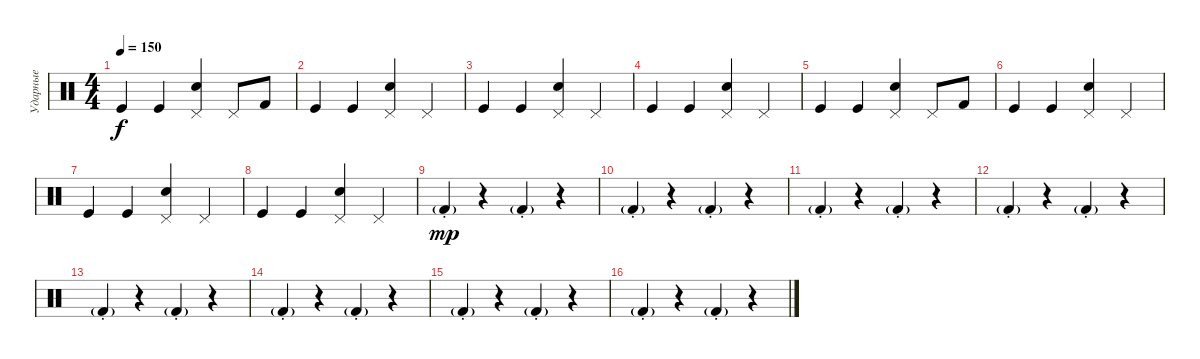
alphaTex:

\track ("Ударные" "Ударные") {instrument percussion}
\staff {score}
\articulation defaults
\ts (4 4)
\tempo 150
\clef neutral
\ks c "Kick (hit)".4{dy f} "Kick (hit)".4
("Electric Snare (hit)" "Pedal Hi-Hat (hit)").4 "Pedal Hi-Hat (hit)".8 "Kick (hit) 2".8 |
"Kick (hit)".4 "Kick (hit)".4 ("Electric Snare (hit)" "Pedal Hi-Hat (hit)").4 "Pedal Hi-Hat (hit)".4 |
"Kick (hit)".4 "Kick (hit)".4 ("Electric Snare (hit)" "Pedal Hi-Hat (hit)").4 "Pedal Hi-Hat (hit)".4 |
"Kick (hit)".4 "Kick (hit)".4 ("Electric Snare (hit)" "Pedal Hi-Hat (hit)").4 "Pedal Hi-Hat (hit)".4 |
"Kick (hit)".4 "Kick (hit)".4 ("Electric Snare (hit)" "Pedal Hi-Hat (hit)").4 "Pedal Hi-Hat (hit)".8 "Kick (hit) 2".8 |
"Kick (hit)".4 "Kick (hit)".4 ("Electric Snare (hit)" "Pedal Hi-Hat (hit)").4 "Pedal Hi-Hat (hit)".4 |
"Kick (hit)".4 "Kick (hit)".4 ("Electric Snare (hit)" "Pedal Hi-Hat (hit)").4 "Pedal Hi-Hat (hit)".4 |
"Kick (hit)".4 "Kick (hit)".4 ("Electric Snare (hit)" "Pedal Hi-Hat (hit)").4 "Pedal Hi-Hat (hit)".4 |
"Kick (hit) 2"{g st}.4{dy mp} r.4 "Kick (hit) 2"{g st}.4 r.4 |
"Kick (hit) 2"{g st}.4 r.4 "Kick (hit) 2"{g st}.4 r.4 |
"Kick (hit) 2"{g st}.4 r.4 "Kick (hit) 2"{g st}.4 r.4 |
"Kick (hit) 2"{g st}.4 r.4 "Kick (hit) 2"{g st}.4 r.4 |
"Kick (hit) 2"{g st}.4 r.4 "Kick (hit) 2"{g st}.4 r.4 |
"Kick (hit) 2"{g st}.4 r.4 "Kick (hit) 2"{g st}.4 r.4 |
"Kick (hit) 2"{g st}.4 r.4 "Kick (hit) 2"{g st}.4 r.4 |
"Kick (hit) 2"{g st}.4 r.4 "Kick (hit) 2"{g st}.4 r.4
